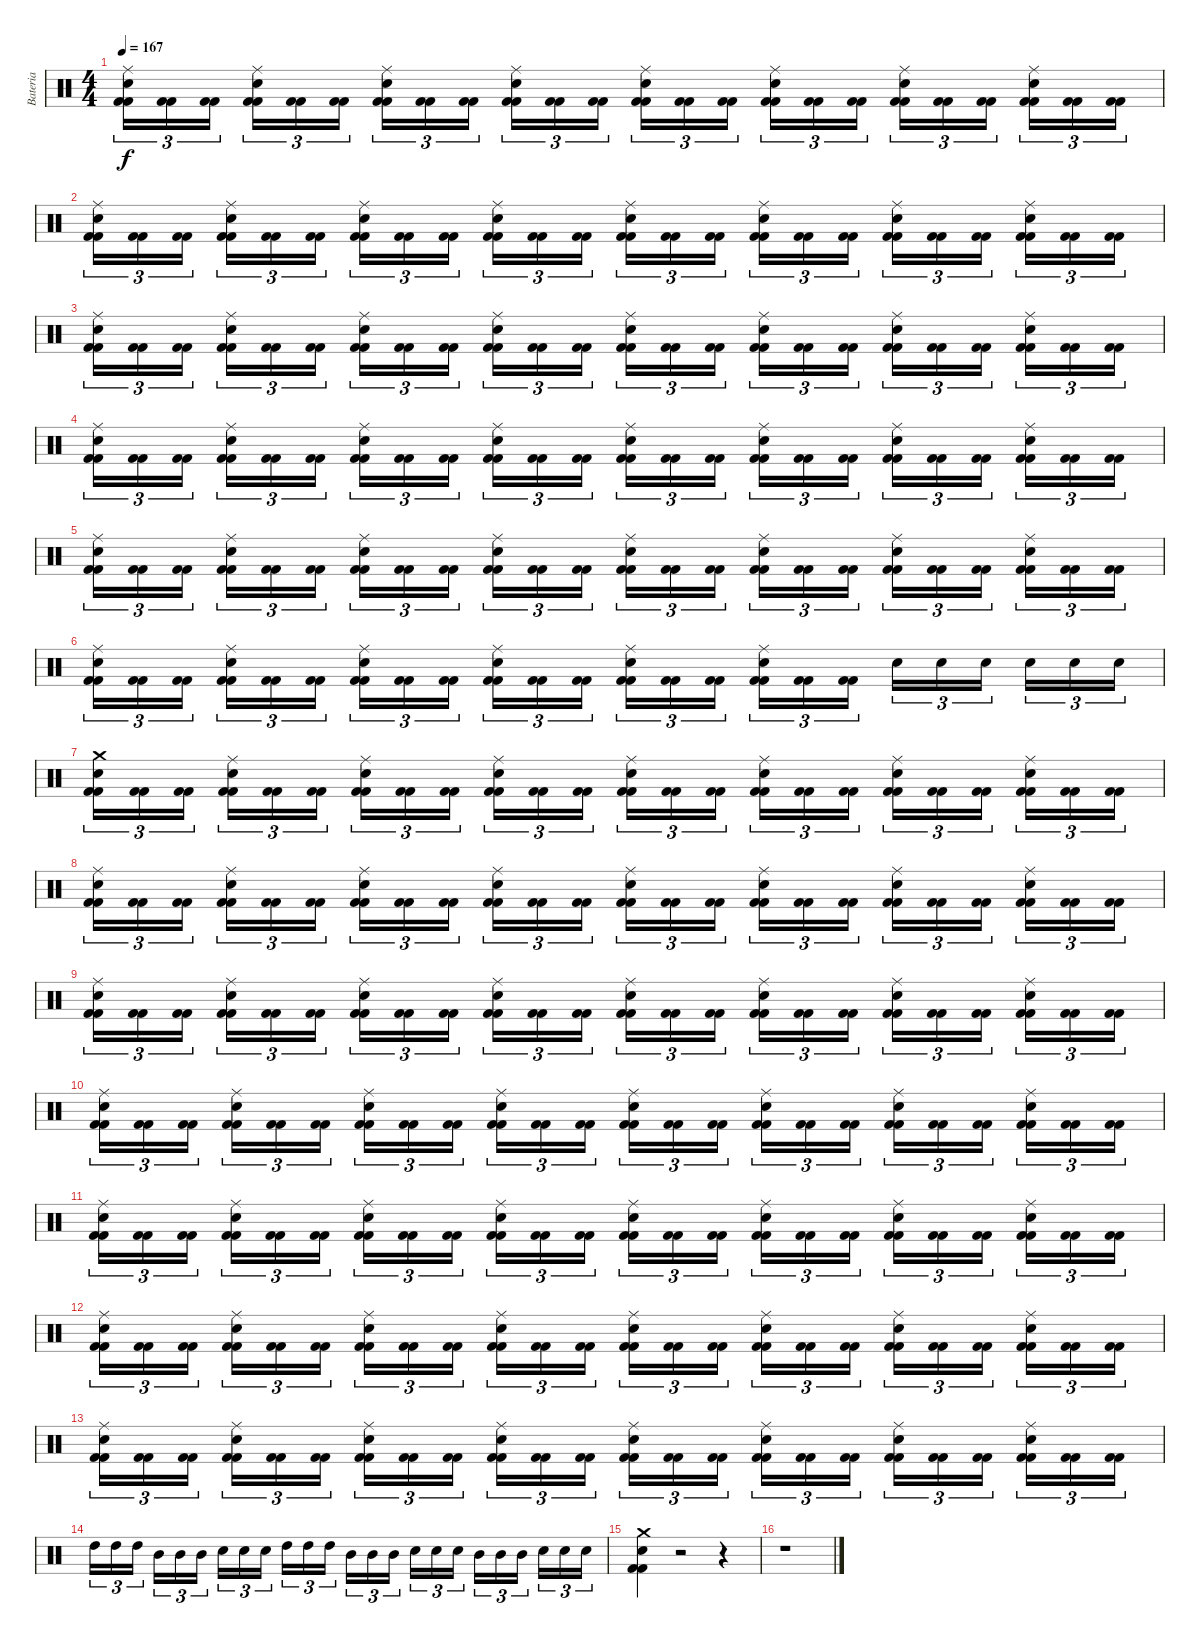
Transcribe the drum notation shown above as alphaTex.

\track ("Bateria" "Bateria") {instrument percussion}
\staff {score}
\articulation defaults
\ts (4 4)
\tempo 167
\clef neutral
\ks c
("Kick (hit) 2" "Kick (hit) 2" "Snare (hit) 2" "Ride (middle)").16{tu (3 2) dy f} ("Kick (hit) 2" "Kick (hit) 2").16{tu (3 2)} ("Kick (hit) 2" "Kick (hit) 2").16{tu (3 2)} ("Kick (hit) 2" "Kick (hit) 2" "Snare (hit) 2" "Ride (middle)").16{tu (3 2)} ("Kick (hit) 2" "Kick (hit) 2").16{tu (3 2)} ("Kick (hit) 2" "Kick (hit) 2").16{tu (3 2)} ("Kick (hit) 2" "Kick (hit) 2" "Snare (hit) 2" "Ride (middle)").16{tu (3 2)} ("Kick (hit) 2" "Kick (hit) 2").16{tu (3 2)} ("Kick (hit) 2" "Kick (hit) 2").16{tu (3 2)} ("Kick (hit) 2" "Kick (hit) 2" "Snare (hit) 2" "Ride (middle)").16{tu (3 2)} ("Kick (hit) 2" "Kick (hit) 2").16{tu (3 2)} ("Kick (hit) 2" "Kick (hit) 2").16{tu (3 2)} ("Kick (hit) 2" "Kick (hit) 2" "Snare (hit) 2" "Ride (middle)").16{tu (3 2)} ("Kick (hit) 2" "Kick (hit) 2").16{tu (3 2)} ("Kick (hit) 2" "Kick (hit) 2").16{tu (3 2)} ("Kick (hit) 2" "Kick (hit) 2" "Snare (hit) 2" "Ride (middle)").16{tu (3 2)} ("Kick (hit) 2" "Kick (hit) 2").16{tu (3 2)} ("Kick (hit) 2" "Kick (hit) 2").16{tu (3 2)} ("Kick (hit) 2" "Kick (hit) 2" "Snare (hit) 2" "Ride (middle)").16{tu (3 2)} ("Kick (hit) 2" "Kick (hit) 2").16{tu (3 2)} ("Kick (hit) 2" "Kick (hit) 2").16{tu (3 2)} ("Kick (hit) 2" "Kick (hit) 2" "Snare (hit) 2" "Ride (middle)").16{tu (3 2)} ("Kick (hit) 2" "Kick (hit) 2").16{tu (3 2)} ("Kick (hit) 2" "Kick (hit) 2").16{tu (3 2)} |
("Kick (hit) 2" "Kick (hit) 2" "Snare (hit) 2" "Ride (middle)").16{tu (3 2)} ("Kick (hit) 2" "Kick (hit) 2").16{tu (3 2)} ("Kick (hit) 2" "Kick (hit) 2").16{tu (3 2)} ("Kick (hit) 2" "Kick (hit) 2" "Snare (hit) 2" "Ride (middle)").16{tu (3 2)} ("Kick (hit) 2" "Kick (hit) 2").16{tu (3 2)} ("Kick (hit) 2" "Kick (hit) 2").16{tu (3 2)} ("Kick (hit) 2" "Kick (hit) 2" "Snare (hit) 2" "Ride (middle)").16{tu (3 2)} ("Kick (hit) 2" "Kick (hit) 2").16{tu (3 2)} ("Kick (hit) 2" "Kick (hit) 2").16{tu (3 2)} ("Kick (hit) 2" "Kick (hit) 2" "Snare (hit) 2" "Ride (middle)").16{tu (3 2)} ("Kick (hit) 2" "Kick (hit) 2").16{tu (3 2)} ("Kick (hit) 2" "Kick (hit) 2").16{tu (3 2)} ("Kick (hit) 2" "Kick (hit) 2" "Snare (hit) 2" "Ride (middle)").16{tu (3 2)} ("Kick (hit) 2" "Kick (hit) 2").16{tu (3 2)} ("Kick (hit) 2" "Kick (hit) 2").16{tu (3 2)} ("Kick (hit) 2" "Kick (hit) 2" "Snare (hit) 2" "Ride (middle)").16{tu (3 2)} ("Kick (hit) 2" "Kick (hit) 2").16{tu (3 2)} ("Kick (hit) 2" "Kick (hit) 2").16{tu (3 2)} ("Kick (hit) 2" "Kick (hit) 2" "Snare (hit) 2" "Ride (middle)").16{tu (3 2)} ("Kick (hit) 2" "Kick (hit) 2").16{tu (3 2)} ("Kick (hit) 2" "Kick (hit) 2").16{tu (3 2)} ("Kick (hit) 2" "Kick (hit) 2" "Snare (hit) 2" "Ride (middle)").16{tu (3 2)} ("Kick (hit) 2" "Kick (hit) 2").16{tu (3 2)} ("Kick (hit) 2" "Kick (hit) 2").16{tu (3 2)} |
("Kick (hit) 2" "Kick (hit) 2" "Snare (hit) 2" "Ride (middle)").16{tu (3 2)} ("Kick (hit) 2" "Kick (hit) 2").16{tu (3 2)} ("Kick (hit) 2" "Kick (hit) 2").16{tu (3 2)} ("Kick (hit) 2" "Kick (hit) 2" "Snare (hit) 2" "Ride (middle)").16{tu (3 2)} ("Kick (hit) 2" "Kick (hit) 2").16{tu (3 2)} ("Kick (hit) 2" "Kick (hit) 2").16{tu (3 2)} ("Kick (hit) 2" "Kick (hit) 2" "Snare (hit) 2" "Ride (middle)").16{tu (3 2)} ("Kick (hit) 2" "Kick (hit) 2").16{tu (3 2)} ("Kick (hit) 2" "Kick (hit) 2").16{tu (3 2)} ("Kick (hit) 2" "Kick (hit) 2" "Snare (hit) 2" "Ride (middle)").16{tu (3 2)} ("Kick (hit) 2" "Kick (hit) 2").16{tu (3 2)} ("Kick (hit) 2" "Kick (hit) 2").16{tu (3 2)} ("Kick (hit) 2" "Kick (hit) 2" "Snare (hit) 2" "Ride (middle)").16{tu (3 2)} ("Kick (hit) 2" "Kick (hit) 2").16{tu (3 2)} ("Kick (hit) 2" "Kick (hit) 2").16{tu (3 2)} ("Kick (hit) 2" "Kick (hit) 2" "Snare (hit) 2" "Ride (middle)").16{tu (3 2)} ("Kick (hit) 2" "Kick (hit) 2").16{tu (3 2)} ("Kick (hit) 2" "Kick (hit) 2").16{tu (3 2)} ("Kick (hit) 2" "Kick (hit) 2" "Snare (hit) 2" "Ride (middle)").16{tu (3 2)} ("Kick (hit) 2" "Kick (hit) 2").16{tu (3 2)} ("Kick (hit) 2" "Kick (hit) 2").16{tu (3 2)} ("Kick (hit) 2" "Kick (hit) 2" "Snare (hit) 2" "Ride (middle)").16{tu (3 2)} ("Kick (hit) 2" "Kick (hit) 2").16{tu (3 2)} ("Kick (hit) 2" "Kick (hit) 2").16{tu (3 2)} |
("Kick (hit) 2" "Kick (hit) 2" "Snare (hit) 2" "Ride (middle)").16{tu (3 2)} ("Kick (hit) 2" "Kick (hit) 2").16{tu (3 2)} ("Kick (hit) 2" "Kick (hit) 2").16{tu (3 2)} ("Kick (hit) 2" "Kick (hit) 2" "Snare (hit) 2" "Ride (middle)").16{tu (3 2)} ("Kick (hit) 2" "Kick (hit) 2").16{tu (3 2)} ("Kick (hit) 2" "Kick (hit) 2").16{tu (3 2)} ("Kick (hit) 2" "Kick (hit) 2" "Snare (hit) 2" "Ride (middle)").16{tu (3 2)} ("Kick (hit) 2" "Kick (hit) 2").16{tu (3 2)} ("Kick (hit) 2" "Kick (hit) 2").16{tu (3 2)} ("Kick (hit) 2" "Kick (hit) 2" "Snare (hit) 2" "Ride (middle)").16{tu (3 2)} ("Kick (hit) 2" "Kick (hit) 2").16{tu (3 2)} ("Kick (hit) 2" "Kick (hit) 2").16{tu (3 2)} ("Kick (hit) 2" "Kick (hit) 2" "Snare (hit) 2" "Ride (middle)").16{tu (3 2)} ("Kick (hit) 2" "Kick (hit) 2").16{tu (3 2)} ("Kick (hit) 2" "Kick (hit) 2").16{tu (3 2)} ("Kick (hit) 2" "Kick (hit) 2" "Snare (hit) 2" "Ride (middle)").16{tu (3 2)} ("Kick (hit) 2" "Kick (hit) 2").16{tu (3 2)} ("Kick (hit) 2" "Kick (hit) 2").16{tu (3 2)} ("Kick (hit) 2" "Kick (hit) 2" "Snare (hit) 2" "Ride (middle)").16{tu (3 2)} ("Kick (hit) 2" "Kick (hit) 2").16{tu (3 2)} ("Kick (hit) 2" "Kick (hit) 2").16{tu (3 2)} ("Kick (hit) 2" "Kick (hit) 2" "Snare (hit) 2" "Ride (middle)").16{tu (3 2)} ("Kick (hit) 2" "Kick (hit) 2").16{tu (3 2)} ("Kick (hit) 2" "Kick (hit) 2").16{tu (3 2)} |
("Kick (hit) 2" "Kick (hit) 2" "Snare (hit) 2" "Ride (middle)").16{tu (3 2)} ("Kick (hit) 2" "Kick (hit) 2").16{tu (3 2)} ("Kick (hit) 2" "Kick (hit) 2").16{tu (3 2)} ("Kick (hit) 2" "Kick (hit) 2" "Snare (hit) 2" "Ride (middle)").16{tu (3 2)} ("Kick (hit) 2" "Kick (hit) 2").16{tu (3 2)} ("Kick (hit) 2" "Kick (hit) 2").16{tu (3 2)} ("Kick (hit) 2" "Kick (hit) 2" "Snare (hit) 2" "Ride (middle)").16{tu (3 2)} ("Kick (hit) 2" "Kick (hit) 2").16{tu (3 2)} ("Kick (hit) 2" "Kick (hit) 2").16{tu (3 2)} ("Kick (hit) 2" "Kick (hit) 2" "Snare (hit) 2" "Ride (middle)").16{tu (3 2)} ("Kick (hit) 2" "Kick (hit) 2").16{tu (3 2)} ("Kick (hit) 2" "Kick (hit) 2").16{tu (3 2)} ("Kick (hit) 2" "Kick (hit) 2" "Snare (hit) 2" "Ride (middle)").16{tu (3 2)} ("Kick (hit) 2" "Kick (hit) 2").16{tu (3 2)} ("Kick (hit) 2" "Kick (hit) 2").16{tu (3 2)} ("Kick (hit) 2" "Kick (hit) 2" "Snare (hit) 2" "Ride (middle)").16{tu (3 2)} ("Kick (hit) 2" "Kick (hit) 2").16{tu (3 2)} ("Kick (hit) 2" "Kick (hit) 2").16{tu (3 2)} ("Kick (hit) 2" "Kick (hit) 2" "Snare (hit) 2" "Ride (middle)").16{tu (3 2)} ("Kick (hit) 2" "Kick (hit) 2").16{tu (3 2)} ("Kick (hit) 2" "Kick (hit) 2").16{tu (3 2)} ("Kick (hit) 2" "Kick (hit) 2" "Snare (hit) 2" "Ride (middle)").16{tu (3 2)} ("Kick (hit) 2" "Kick (hit) 2").16{tu (3 2)} ("Kick (hit) 2" "Kick (hit) 2").16{tu (3 2)} |
("Kick (hit) 2" "Kick (hit) 2" "Snare (hit) 2" "Ride (middle)").16{tu (3 2)} ("Kick (hit) 2" "Kick (hit) 2").16{tu (3 2)} ("Kick (hit) 2" "Kick (hit) 2").16{tu (3 2)} ("Kick (hit) 2" "Kick (hit) 2" "Snare (hit) 2" "Ride (middle)").16{tu (3 2)} ("Kick (hit) 2" "Kick (hit) 2").16{tu (3 2)} ("Kick (hit) 2" "Kick (hit) 2").16{tu (3 2)} ("Kick (hit) 2" "Kick (hit) 2" "Snare (hit) 2" "Ride (middle)").16{tu (3 2)} ("Kick (hit) 2" "Kick (hit) 2").16{tu (3 2)} ("Kick (hit) 2" "Kick (hit) 2").16{tu (3 2)} ("Kick (hit) 2" "Kick (hit) 2" "Snare (hit) 2" "Ride (middle)").16{tu (3 2)} ("Kick (hit) 2" "Kick (hit) 2").16{tu (3 2)} ("Kick (hit) 2" "Kick (hit) 2").16{tu (3 2)} ("Kick (hit) 2" "Kick (hit) 2" "Snare (hit) 2" "Ride (middle)").16{tu (3 2)} ("Kick (hit) 2" "Kick (hit) 2").16{tu (3 2)} ("Kick (hit) 2" "Kick (hit) 2").16{tu (3 2)} ("Kick (hit) 2" "Kick (hit) 2" "Snare (hit) 2" "Ride (middle)").16{tu (3 2)} ("Kick (hit) 2" "Kick (hit) 2").16{tu (3 2)} ("Kick (hit) 2" "Kick (hit) 2").16{tu (3 2)} "Snare (hit) 2".16{tu (3 2)} "Snare (hit) 2".16{tu (3 2)} "Snare (hit) 2".16{tu (3 2)} "Snare (hit) 2".16{tu (3 2)} "Snare (hit) 2".16{tu (3 2)} "Snare (hit) 2".16{tu (3 2)} |
("Kick (hit) 2" "Kick (hit) 2" "Snare (hit) 2" "Crash medium (hit)").16{tu (3 2)} ("Kick (hit) 2" "Kick (hit) 2").16{tu (3 2)} ("Kick (hit) 2" "Kick (hit) 2").16{tu (3 2)} ("Kick (hit) 2" "Kick (hit) 2" "Snare (hit) 2" "Ride (middle)").16{tu (3 2)} ("Kick (hit) 2" "Kick (hit) 2").16{tu (3 2)} ("Kick (hit) 2" "Kick (hit) 2").16{tu (3 2)} ("Kick (hit) 2" "Kick (hit) 2" "Snare (hit) 2" "Ride (middle)").16{tu (3 2)} ("Kick (hit) 2" "Kick (hit) 2").16{tu (3 2)} ("Kick (hit) 2" "Kick (hit) 2").16{tu (3 2)} ("Kick (hit) 2" "Kick (hit) 2" "Snare (hit) 2" "Ride (middle)").16{tu (3 2)} ("Kick (hit) 2" "Kick (hit) 2").16{tu (3 2)} ("Kick (hit) 2" "Kick (hit) 2").16{tu (3 2)} ("Kick (hit) 2" "Kick (hit) 2" "Snare (hit) 2" "Ride (middle)").16{tu (3 2)} ("Kick (hit) 2" "Kick (hit) 2").16{tu (3 2)} ("Kick (hit) 2" "Kick (hit) 2").16{tu (3 2)} ("Kick (hit) 2" "Kick (hit) 2" "Snare (hit) 2" "Ride (middle)").16{tu (3 2)} ("Kick (hit) 2" "Kick (hit) 2").16{tu (3 2)} ("Kick (hit) 2" "Kick (hit) 2").16{tu (3 2)} ("Kick (hit) 2" "Kick (hit) 2" "Snare (hit) 2" "Ride (middle)").16{tu (3 2)} ("Kick (hit) 2" "Kick (hit) 2").16{tu (3 2)} ("Kick (hit) 2" "Kick (hit) 2").16{tu (3 2)} ("Kick (hit) 2" "Kick (hit) 2" "Snare (hit) 2" "Ride (middle)").16{tu (3 2)} ("Kick (hit) 2" "Kick (hit) 2").16{tu (3 2)} ("Kick (hit) 2" "Kick (hit) 2").16{tu (3 2)} |
("Kick (hit) 2" "Kick (hit) 2" "Snare (hit) 2" "Ride (middle)").16{tu (3 2)} ("Kick (hit) 2" "Kick (hit) 2").16{tu (3 2)} ("Kick (hit) 2" "Kick (hit) 2").16{tu (3 2)} ("Kick (hit) 2" "Kick (hit) 2" "Snare (hit) 2" "Ride (middle)").16{tu (3 2)} ("Kick (hit) 2" "Kick (hit) 2").16{tu (3 2)} ("Kick (hit) 2" "Kick (hit) 2").16{tu (3 2)} ("Kick (hit) 2" "Kick (hit) 2" "Snare (hit) 2" "Ride (middle)").16{tu (3 2)} ("Kick (hit) 2" "Kick (hit) 2").16{tu (3 2)} ("Kick (hit) 2" "Kick (hit) 2").16{tu (3 2)} ("Kick (hit) 2" "Kick (hit) 2" "Snare (hit) 2" "Ride (middle)").16{tu (3 2)} ("Kick (hit) 2" "Kick (hit) 2").16{tu (3 2)} ("Kick (hit) 2" "Kick (hit) 2").16{tu (3 2)} ("Kick (hit) 2" "Kick (hit) 2" "Snare (hit) 2" "Ride (middle)").16{tu (3 2)} ("Kick (hit) 2" "Kick (hit) 2").16{tu (3 2)} ("Kick (hit) 2" "Kick (hit) 2").16{tu (3 2)} ("Kick (hit) 2" "Kick (hit) 2" "Snare (hit) 2" "Ride (middle)").16{tu (3 2)} ("Kick (hit) 2" "Kick (hit) 2").16{tu (3 2)} ("Kick (hit) 2" "Kick (hit) 2").16{tu (3 2)} ("Kick (hit) 2" "Kick (hit) 2" "Snare (hit) 2" "Ride (middle)").16{tu (3 2)} ("Kick (hit) 2" "Kick (hit) 2").16{tu (3 2)} ("Kick (hit) 2" "Kick (hit) 2").16{tu (3 2)} ("Kick (hit) 2" "Kick (hit) 2" "Snare (hit) 2" "Ride (middle)").16{tu (3 2)} ("Kick (hit) 2" "Kick (hit) 2").16{tu (3 2)} ("Kick (hit) 2" "Kick (hit) 2").16{tu (3 2)} |
("Kick (hit) 2" "Kick (hit) 2" "Snare (hit) 2" "Ride (middle)").16{tu (3 2)} ("Kick (hit) 2" "Kick (hit) 2").16{tu (3 2)} ("Kick (hit) 2" "Kick (hit) 2").16{tu (3 2)} ("Kick (hit) 2" "Kick (hit) 2" "Snare (hit) 2" "Ride (middle)").16{tu (3 2)} ("Kick (hit) 2" "Kick (hit) 2").16{tu (3 2)} ("Kick (hit) 2" "Kick (hit) 2").16{tu (3 2)} ("Kick (hit) 2" "Kick (hit) 2" "Snare (hit) 2" "Ride (middle)").16{tu (3 2)} ("Kick (hit) 2" "Kick (hit) 2").16{tu (3 2)} ("Kick (hit) 2" "Kick (hit) 2").16{tu (3 2)} ("Kick (hit) 2" "Kick (hit) 2" "Snare (hit) 2" "Ride (middle)").16{tu (3 2)} ("Kick (hit) 2" "Kick (hit) 2").16{tu (3 2)} ("Kick (hit) 2" "Kick (hit) 2").16{tu (3 2)} ("Kick (hit) 2" "Kick (hit) 2" "Snare (hit) 2" "Ride (middle)").16{tu (3 2)} ("Kick (hit) 2" "Kick (hit) 2").16{tu (3 2)} ("Kick (hit) 2" "Kick (hit) 2").16{tu (3 2)} ("Kick (hit) 2" "Kick (hit) 2" "Snare (hit) 2" "Ride (middle)").16{tu (3 2)} ("Kick (hit) 2" "Kick (hit) 2").16{tu (3 2)} ("Kick (hit) 2" "Kick (hit) 2").16{tu (3 2)} ("Kick (hit) 2" "Kick (hit) 2" "Snare (hit) 2" "Ride (middle)").16{tu (3 2)} ("Kick (hit) 2" "Kick (hit) 2").16{tu (3 2)} ("Kick (hit) 2" "Kick (hit) 2").16{tu (3 2)} ("Kick (hit) 2" "Kick (hit) 2" "Snare (hit) 2" "Ride (middle)").16{tu (3 2)} ("Kick (hit) 2" "Kick (hit) 2").16{tu (3 2)} ("Kick (hit) 2" "Kick (hit) 2").16{tu (3 2)} |
("Kick (hit) 2" "Kick (hit) 2" "Snare (hit) 2" "Ride (middle)").16{tu (3 2)} ("Kick (hit) 2" "Kick (hit) 2").16{tu (3 2)} ("Kick (hit) 2" "Kick (hit) 2").16{tu (3 2)} ("Kick (hit) 2" "Kick (hit) 2" "Snare (hit) 2" "Ride (middle)").16{tu (3 2)} ("Kick (hit) 2" "Kick (hit) 2").16{tu (3 2)} ("Kick (hit) 2" "Kick (hit) 2").16{tu (3 2)} ("Kick (hit) 2" "Kick (hit) 2" "Snare (hit) 2" "Ride (middle)").16{tu (3 2)} ("Kick (hit) 2" "Kick (hit) 2").16{tu (3 2)} ("Kick (hit) 2" "Kick (hit) 2").16{tu (3 2)} ("Kick (hit) 2" "Kick (hit) 2" "Snare (hit) 2" "Ride (middle)").16{tu (3 2)} ("Kick (hit) 2" "Kick (hit) 2").16{tu (3 2)} ("Kick (hit) 2" "Kick (hit) 2").16{tu (3 2)} ("Kick (hit) 2" "Kick (hit) 2" "Snare (hit) 2" "Ride (middle)").16{tu (3 2)} ("Kick (hit) 2" "Kick (hit) 2").16{tu (3 2)} ("Kick (hit) 2" "Kick (hit) 2").16{tu (3 2)} ("Kick (hit) 2" "Kick (hit) 2" "Snare (hit) 2" "Ride (middle)").16{tu (3 2)} ("Kick (hit) 2" "Kick (hit) 2").16{tu (3 2)} ("Kick (hit) 2" "Kick (hit) 2").16{tu (3 2)} ("Kick (hit) 2" "Kick (hit) 2" "Snare (hit) 2" "Ride (middle)").16{tu (3 2)} ("Kick (hit) 2" "Kick (hit) 2").16{tu (3 2)} ("Kick (hit) 2" "Kick (hit) 2").16{tu (3 2)} ("Kick (hit) 2" "Kick (hit) 2" "Snare (hit) 2" "Ride (middle)").16{tu (3 2)} ("Kick (hit) 2" "Kick (hit) 2").16{tu (3 2)} ("Kick (hit) 2" "Kick (hit) 2").16{tu (3 2)} |
("Kick (hit) 2" "Kick (hit) 2" "Snare (hit) 2" "Ride (middle)").16{tu (3 2)} ("Kick (hit) 2" "Kick (hit) 2").16{tu (3 2)} ("Kick (hit) 2" "Kick (hit) 2").16{tu (3 2)} ("Kick (hit) 2" "Kick (hit) 2" "Snare (hit) 2" "Ride (middle)").16{tu (3 2)} ("Kick (hit) 2" "Kick (hit) 2").16{tu (3 2)} ("Kick (hit) 2" "Kick (hit) 2").16{tu (3 2)} ("Kick (hit) 2" "Kick (hit) 2" "Snare (hit) 2" "Ride (middle)").16{tu (3 2)} ("Kick (hit) 2" "Kick (hit) 2").16{tu (3 2)} ("Kick (hit) 2" "Kick (hit) 2").16{tu (3 2)} ("Kick (hit) 2" "Kick (hit) 2" "Snare (hit) 2" "Ride (middle)").16{tu (3 2)} ("Kick (hit) 2" "Kick (hit) 2").16{tu (3 2)} ("Kick (hit) 2" "Kick (hit) 2").16{tu (3 2)} ("Kick (hit) 2" "Kick (hit) 2" "Snare (hit) 2" "Ride (middle)").16{tu (3 2)} ("Kick (hit) 2" "Kick (hit) 2").16{tu (3 2)} ("Kick (hit) 2" "Kick (hit) 2").16{tu (3 2)} ("Kick (hit) 2" "Kick (hit) 2" "Snare (hit) 2" "Ride (middle)").16{tu (3 2)} ("Kick (hit) 2" "Kick (hit) 2").16{tu (3 2)} ("Kick (hit) 2" "Kick (hit) 2").16{tu (3 2)} ("Kick (hit) 2" "Kick (hit) 2" "Snare (hit) 2" "Ride (middle)").16{tu (3 2)} ("Kick (hit) 2" "Kick (hit) 2").16{tu (3 2)} ("Kick (hit) 2" "Kick (hit) 2").16{tu (3 2)} ("Kick (hit) 2" "Kick (hit) 2" "Snare (hit) 2" "Ride (middle)").16{tu (3 2)} ("Kick (hit) 2" "Kick (hit) 2").16{tu (3 2)} ("Kick (hit) 2" "Kick (hit) 2").16{tu (3 2)} |
("Kick (hit) 2" "Kick (hit) 2" "Snare (hit) 2" "Ride (middle)").16{tu (3 2)} ("Kick (hit) 2" "Kick (hit) 2").16{tu (3 2)} ("Kick (hit) 2" "Kick (hit) 2").16{tu (3 2)} ("Kick (hit) 2" "Kick (hit) 2" "Snare (hit) 2" "Ride (middle)").16{tu (3 2)} ("Kick (hit) 2" "Kick (hit) 2").16{tu (3 2)} ("Kick (hit) 2" "Kick (hit) 2").16{tu (3 2)} ("Kick (hit) 2" "Kick (hit) 2" "Snare (hit) 2" "Ride (middle)").16{tu (3 2)} ("Kick (hit) 2" "Kick (hit) 2").16{tu (3 2)} ("Kick (hit) 2" "Kick (hit) 2").16{tu (3 2)} ("Kick (hit) 2" "Kick (hit) 2" "Snare (hit) 2" "Ride (middle)").16{tu (3 2)} ("Kick (hit) 2" "Kick (hit) 2").16{tu (3 2)} ("Kick (hit) 2" "Kick (hit) 2").16{tu (3 2)} ("Kick (hit) 2" "Kick (hit) 2" "Snare (hit) 2" "Ride (middle)").16{tu (3 2)} ("Kick (hit) 2" "Kick (hit) 2").16{tu (3 2)} ("Kick (hit) 2" "Kick (hit) 2").16{tu (3 2)} ("Kick (hit) 2" "Kick (hit) 2" "Snare (hit) 2" "Ride (middle)").16{tu (3 2)} ("Kick (hit) 2" "Kick (hit) 2").16{tu (3 2)} ("Kick (hit) 2" "Kick (hit) 2").16{tu (3 2)} ("Kick (hit) 2" "Kick (hit) 2" "Snare (hit) 2" "Ride (middle)").16{tu (3 2)} ("Kick (hit) 2" "Kick (hit) 2").16{tu (3 2)} ("Kick (hit) 2" "Kick (hit) 2").16{tu (3 2)} ("Kick (hit) 2" "Kick (hit) 2" "Snare (hit) 2" "Ride (middle)").16{tu (3 2)} ("Kick (hit) 2" "Kick (hit) 2").16{tu (3 2)} ("Kick (hit) 2" "Kick (hit) 2").16{tu (3 2)} |
("Kick (hit) 2" "Kick (hit) 2" "Snare (hit) 2" "Ride (middle)").16{tu (3 2)} ("Kick (hit) 2" "Kick (hit) 2").16{tu (3 2)} ("Kick (hit) 2" "Kick (hit) 2").16{tu (3 2)} ("Kick (hit) 2" "Kick (hit) 2" "Snare (hit) 2" "Ride (middle)").16{tu (3 2)} ("Kick (hit) 2" "Kick (hit) 2").16{tu (3 2)} ("Kick (hit) 2" "Kick (hit) 2").16{tu (3 2)} ("Kick (hit) 2" "Kick (hit) 2" "Snare (hit) 2" "Ride (middle)").16{tu (3 2)} ("Kick (hit) 2" "Kick (hit) 2").16{tu (3 2)} ("Kick (hit) 2" "Kick (hit) 2").16{tu (3 2)} ("Kick (hit) 2" "Kick (hit) 2" "Snare (hit) 2" "Ride (middle)").16{tu (3 2)} ("Kick (hit) 2" "Kick (hit) 2").16{tu (3 2)} ("Kick (hit) 2" "Kick (hit) 2").16{tu (3 2)} ("Kick (hit) 2" "Kick (hit) 2" "Snare (hit) 2" "Ride (middle)").16{tu (3 2)} ("Kick (hit) 2" "Kick (hit) 2").16{tu (3 2)} ("Kick (hit) 2" "Kick (hit) 2").16{tu (3 2)} ("Kick (hit) 2" "Kick (hit) 2" "Snare (hit) 2" "Ride (middle)").16{tu (3 2)} ("Kick (hit) 2" "Kick (hit) 2").16{tu (3 2)} ("Kick (hit) 2" "Kick (hit) 2").16{tu (3 2)} ("Kick (hit) 2" "Kick (hit) 2" "Snare (hit) 2" "Ride (middle)").16{tu (3 2)} ("Kick (hit) 2" "Kick (hit) 2").16{tu (3 2)} ("Kick (hit) 2" "Kick (hit) 2").16{tu (3 2)} ("Kick (hit) 2" "Kick (hit) 2" "Snare (hit) 2" "Ride (middle)").16{tu (3 2)} ("Kick (hit) 2" "Kick (hit) 2").16{tu (3 2)} ("Kick (hit) 2" "Kick (hit) 2").16{tu (3 2)} |
"High Tom (hit)".16{tu (3 2)} "High Tom (hit)".16{tu (3 2)} "High Tom (hit)".16{tu (3 2)} "Mid Tom (hit)".16{tu (3 2)} "Mid Tom (hit)".16{tu (3 2)} "Mid Tom (hit)".16{tu (3 2)} "Snare (hit) 2".16{tu (3 2)} "Snare (hit) 2".16{tu (3 2)} "Snare (hit) 2".16{tu (3 2)} "High Tom (hit)".16{tu (3 2)} "High Tom (hit)".16{tu (3 2)} "High Tom (hit)".16{tu (3 2)} "Mid Tom (hit)".16{tu (3 2)} "Mid Tom (hit)".16{tu (3 2)} "Mid Tom (hit)".16{tu (3 2)} "Snare (hit) 2".16{tu (3 2)} "Snare (hit) 2".16{tu (3 2)} "Snare (hit) 2".16{tu (3 2)} "Mid Tom (hit)".16{tu (3 2)} "Mid Tom (hit)".16{tu (3 2)} "Mid Tom (hit)".16{tu (3 2)} "Snare (hit) 2".16{tu (3 2)} "Snare (hit) 2".16{tu (3 2)} "Snare (hit) 2".16{tu (3 2)} |
("Kick (hit) 2" "Kick (hit) 2" "Snare (hit) 2" "Crash medium (hit)").4 r.2 r.4 |
r.1
